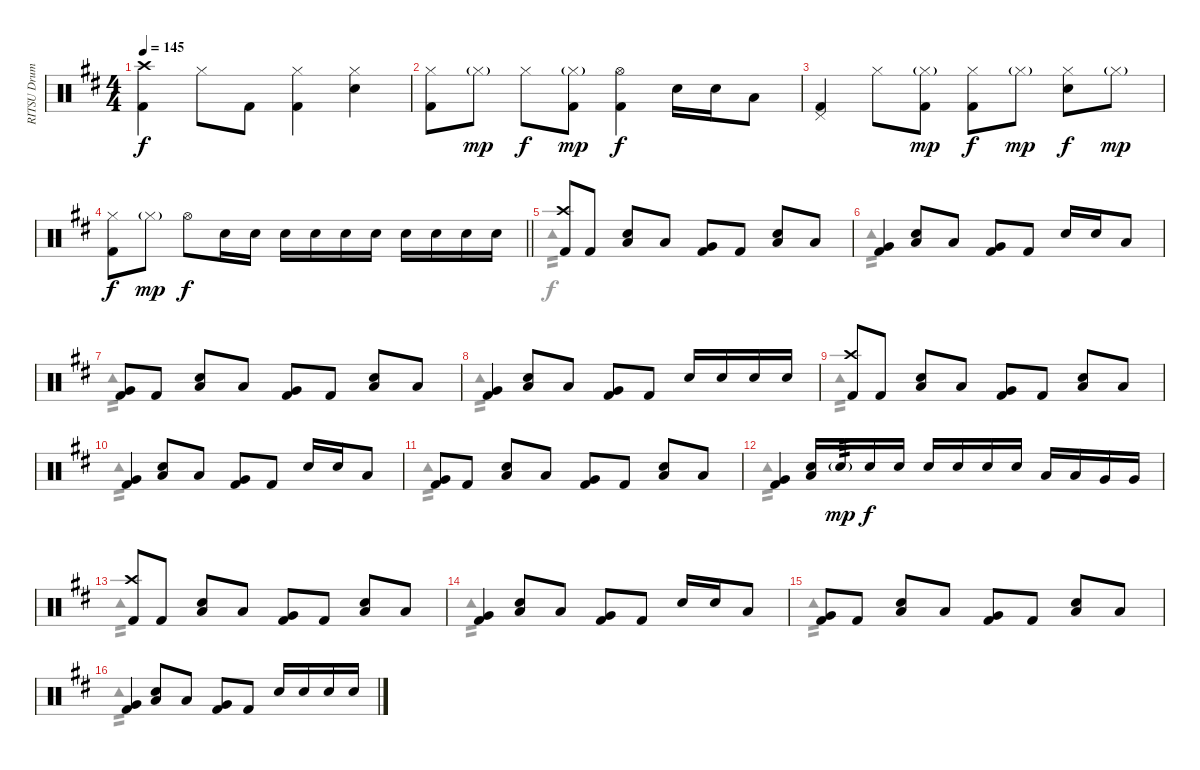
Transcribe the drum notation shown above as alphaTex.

\track ("RITSU Drums" "RITSU Drum") {instrument percussion}
\staff {score}
\articulation defaults
\voice
\ts (4 4)
\tempo 145
\clef neutral
\ks d
("Crash high (hit)" "Kick (hit) 2").4{dy f} "Hi-Hat (closed)".8 "Kick (hit) 2".8 ("Hi-Hat (closed)" "Kick (hit) 2").4 ("Hi-Hat (closed)" "Snare (hit) 2").4 |
("Hi-Hat (closed)" "Kick (hit) 2").8 "Hi-Hat (closed)"{g}.8{dy mp} "Hi-Hat (closed)".8{dy f} ("Hi-Hat (closed)"{g} "Kick (hit) 2").8{dy mp} ("Hi-Hat (open)" "Kick (hit) 2").4{dy f} "Snare (hit) 2".16 "Snare (hit) 2".16 "Low Tom (hit)".8 |
("Pedal Hi-Hat (hit)" "Kick (hit) 2").4 "Hi-Hat (closed)".8 ("Hi-Hat (closed)"{g} "Kick (hit) 2").8{dy mp} ("Hi-Hat (closed)" "Kick (hit) 2").8{dy f} "Hi-Hat (closed)"{g}.8{dy mp} ("Hi-Hat (closed)" "Snare (hit) 2").8{dy f} "Hi-Hat (closed)"{g}.8{dy mp} |
\barLineRight lightlight
("Hi-Hat (closed)" "Kick (hit) 2").8{dy f} "Hi-Hat (closed)"{g}.8{dy mp} "Hi-Hat (open)".8{dy f} "Snare (hit) 2".16 "Snare (hit) 2".16 "Snare (hit) 2".16 "Snare (hit) 2".16 "Snare (hit) 2".16 "Snare (hit) 2".16 "Snare (hit) 2".16 "Snare (hit) 2".16 "Snare (hit) 2".16 "Snare (hit) 2".16 |
("Crash high (hit)" "Kick (hit) 2").8 "Kick (hit) 2".8 ("Snare (hit) 2" "Low Floor Tom (hit)").8 "Low Tom (hit)".8 ("Very Low Tom (hit)" "Kick (hit) 2").8 "Kick (hit) 2".8 ("Snare (hit) 2" "Low Floor Tom (hit)").8 "Low Tom (hit)".8 |
("Very Low Tom (hit)" "Kick (hit) 2").4 ("Snare (hit) 2" "Low Floor Tom (hit)").8 "Low Tom (hit)".8 ("Very Low Tom (hit)" "Kick (hit) 2").8 "Kick (hit) 2".8 "Snare (hit) 2".16 "Snare (hit) 2".16 "Low Tom (hit)".8 |
("Very Low Tom (hit)" "Kick (hit) 2").8 "Kick (hit) 2".8 ("Snare (hit) 2" "Low Floor Tom (hit)").8 "Low Tom (hit)".8 ("Very Low Tom (hit)" "Kick (hit) 2").8 "Kick (hit) 2".8 ("Snare (hit) 2" "Low Floor Tom (hit)").8 "Low Tom (hit)".8 |
("Very Low Tom (hit)" "Kick (hit) 2").4 ("Snare (hit) 2" "Low Floor Tom (hit)").8 "Low Tom (hit)".8 ("Very Low Tom (hit)" "Kick (hit) 2").8 "Kick (hit) 2".8 "Snare (hit) 2".16 "Snare (hit) 2".16 "Snare (hit) 2".16 "Snare (hit) 2".16 |
("Crash high (hit)" "Kick (hit) 2").8 "Kick (hit) 2".8 ("Snare (hit) 2" "Low Floor Tom (hit)").8 "Low Tom (hit)".8 ("Very Low Tom (hit)" "Kick (hit) 2").8 "Kick (hit) 2".8 ("Snare (hit) 2" "Low Floor Tom (hit)").8 "Low Tom (hit)".8 |
("Very Low Tom (hit)" "Kick (hit) 2").4 ("Snare (hit) 2" "Low Floor Tom (hit)").8 "Low Tom (hit)".8 ("Very Low Tom (hit)" "Kick (hit) 2").8 "Kick (hit) 2".8 "Snare (hit) 2".16 "Snare (hit) 2".16 "Low Tom (hit)".8 |
("Very Low Tom (hit)" "Kick (hit) 2").8 "Kick (hit) 2".8 ("Snare (hit) 2" "Low Floor Tom (hit)").8 "Low Tom (hit)".8 ("Very Low Tom (hit)" "Kick (hit) 2").8 "Kick (hit) 2".8 ("Snare (hit) 2" "Low Floor Tom (hit)").8 "Low Tom (hit)".8 |
("Very Low Tom (hit)" "Kick (hit) 2").4 ("Snare (hit) 2" "Low Floor Tom (hit)").16 "Snare (hit) 2"{g}.16{tp 3 dy mp} "Snare (hit) 2".16{dy f} "Snare (hit) 2".16 "Snare (hit) 2".16 "Snare (hit) 2".16 "Snare (hit) 2".16 "Snare (hit) 2".16 "Low Tom (hit)".16 "Low Tom (hit)".16 "Very Low Tom (hit)".16 "Very Low Tom (hit)".16 |
("Crash high (hit)" "Kick (hit) 2").8 "Kick (hit) 2".8 ("Snare (hit) 2" "Low Floor Tom (hit)").8 "Low Tom (hit)".8 ("Very Low Tom (hit)" "Kick (hit) 2").8 "Kick (hit) 2".8 ("Snare (hit) 2" "Low Floor Tom (hit)").8 "Low Tom (hit)".8 |
("Very Low Tom (hit)" "Kick (hit) 2").4 ("Snare (hit) 2" "Low Floor Tom (hit)").8 "Low Tom (hit)".8 ("Very Low Tom (hit)" "Kick (hit) 2").8 "Kick (hit) 2".8 "Snare (hit) 2".16 "Snare (hit) 2".16 "Low Tom (hit)".8 |
("Very Low Tom (hit)" "Kick (hit) 2").8 "Kick (hit) 2".8 ("Snare (hit) 2" "Low Floor Tom (hit)").8 "Low Tom (hit)".8 ("Very Low Tom (hit)" "Kick (hit) 2").8 "Kick (hit) 2".8 ("Snare (hit) 2" "Low Floor Tom (hit)").8 "Low Tom (hit)".8 |
("Very Low Tom (hit)" "Kick (hit) 2").4 ("Snare (hit) 2" "Low Floor Tom (hit)").8 "Low Tom (hit)".8 ("Very Low Tom (hit)" "Kick (hit) 2").8 "Kick (hit) 2".8 "Snare (hit) 2".16 "Snare (hit) 2".16 "Snare (hit) 2".16 "Snare (hit) 2".16
\voice
\clef neutral
\ottava regular
\simile none
\ks d
|
|
|
\barLineRight lightlight
|
"Tambourine (hit)".1{tp 2} |
"Tambourine (hit)".1{tp 2} |
"Tambourine (hit)".1{tp 2} |
"Tambourine (hit)".1{tp 2} |
"Tambourine (hit)".1{tp 2} |
"Tambourine (hit)".1{tp 2} |
"Tambourine (hit)".1{tp 2} |
"Tambourine (hit)".1{tp 2} |
"Tambourine (hit)".1{tp 2} |
"Tambourine (hit)".1{tp 2} |
"Tambourine (hit)".1{tp 2} |
"Tambourine (hit)".1{tp 2}
